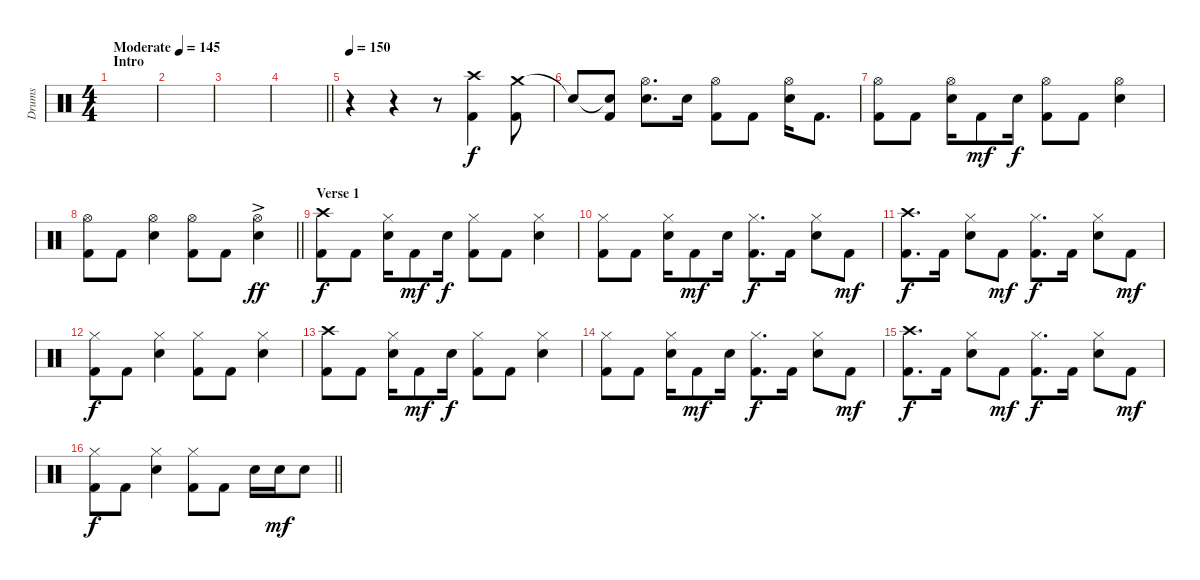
\track ("Drums" "Drums") {instrument percussion}
\staff {score}
\articulation defaults
\ts (4 4)
\section ("" "Intro")
\tempo (145 "Moderate")
\clef neutral
\ks c
|
|
|
\barLineRight lightlight
|
\tempo 150
r.4 r.4 r.8 ("Crash high (hit)" "Kick (hit) 2").4 ("Crash medium (hit)" "Kick (hit) 2").8 |
"Snare (hit)"{t}.8 ("Snare (hit)"{t} "Kick (hit) 2").8 ("Hi-Hat (open)" "Electric Snare (hit)").8{d} "Electric Snare (hit)".16 ("Hi-Hat (open)" "Kick (hit) 2").8 "Kick (hit) 2".8 ("Hi-Hat (open)" "Electric Snare (hit)").16 "Kick (hit) 2".8{d} |
("Hi-Hat (open)" "Kick (hit) 2").8 "Kick (hit) 2".8 ("Hi-Hat (open)" "Electric Snare (hit)").16 "Kick (hit) 2".8{dy mf} "Electric Snare (hit)".16{dy f} ("Hi-Hat (open)" "Kick (hit) 2").8 "Kick (hit) 2".8 ("Hi-Hat (open)" "Electric Snare (hit)").4 |
\barLineRight lightlight
("Hi-Hat (open)" "Kick (hit) 2").8 "Kick (hit) 2".8 ("Hi-Hat (open)" "Electric Snare (hit)").4 ("Hi-Hat (open)" "Kick (hit) 2").8 "Kick (hit) 2".8 ("Hi-Hat (open)" "Electric Snare (hit)"{ac}).4{dy ff} |
\section ("" "Verse 1")
("Crash high (hit)" "Kick (hit) 2").8{dy f} "Kick (hit) 2".8 ("Hi-Hat (closed)" "Electric Snare (hit)").16 "Kick (hit) 2".8{dy mf} "Electric Snare (hit)".16{dy f} ("Hi-Hat (closed)" "Kick (hit) 2").8 "Kick (hit) 2".8 ("Hi-Hat (closed)" "Electric Snare (hit)").4 |
("Hi-Hat (closed)" "Kick (hit) 2").8 "Kick (hit) 2".8 ("Hi-Hat (closed)" "Electric Snare (hit)").16 "Kick (hit) 2".8{dy mf} "Electric Snare (hit)".16 ("Hi-Hat (closed)" "Kick (hit) 2").8{d dy f} "Kick (hit) 2".16 ("Hi-Hat (closed)" "Electric Snare (hit)").8 "Kick (hit) 2".8{dy mf} |
("Crash high (hit)" "Kick (hit) 2").8{d dy f} "Kick (hit) 2".16 ("Hi-Hat (closed)" "Electric Snare (hit)").8 "Kick (hit) 2".8{dy mf} ("Hi-Hat (closed)" "Kick (hit) 2").8{d dy f} "Kick (hit) 2".16 ("Hi-Hat (closed)" "Electric Snare (hit)").8 "Kick (hit) 2".8{dy mf} |
("Hi-Hat (closed)" "Kick (hit) 2").8{dy f} "Kick (hit) 2".8 ("Hi-Hat (closed)" "Electric Snare (hit)").4 ("Hi-Hat (closed)" "Kick (hit) 2").8 "Kick (hit) 2".8 ("Hi-Hat (closed)" "Electric Snare (hit)").4 |
("Crash high (hit)" "Kick (hit) 2").8 "Kick (hit) 2".8 ("Hi-Hat (closed)" "Electric Snare (hit)").16 "Kick (hit) 2".8{dy mf} "Electric Snare (hit)".16{dy f} ("Hi-Hat (closed)" "Kick (hit) 2").8 "Kick (hit) 2".8 ("Hi-Hat (closed)" "Electric Snare (hit)").4 |
("Hi-Hat (closed)" "Kick (hit) 2").8 "Kick (hit) 2".8 ("Hi-Hat (closed)" "Electric Snare (hit)").16 "Kick (hit) 2".8{dy mf} "Electric Snare (hit)".16 ("Hi-Hat (closed)" "Kick (hit) 2").8{d dy f} "Kick (hit) 2".16 ("Hi-Hat (closed)" "Electric Snare (hit)").8 "Kick (hit) 2".8{dy mf} |
("Crash high (hit)" "Kick (hit) 2").8{d dy f} "Kick (hit) 2".16 ("Hi-Hat (closed)" "Electric Snare (hit)").8 "Kick (hit) 2".8{dy mf} ("Hi-Hat (closed)" "Kick (hit) 2").8{d dy f} "Kick (hit) 2".16 ("Hi-Hat (closed)" "Electric Snare (hit)").8 "Kick (hit) 2".8{dy mf} |
\barLineRight lightlight
("Hi-Hat (closed)" "Kick (hit) 2").8{dy f} "Kick (hit) 2".8 ("Hi-Hat (closed)" "Electric Snare (hit)").4 ("Hi-Hat (closed)" "Kick (hit) 2").8 "Kick (hit) 2".8 "Electric Snare (hit)".16 "Electric Snare (hit)".16{dy mf} "Electric Snare (hit)".8
